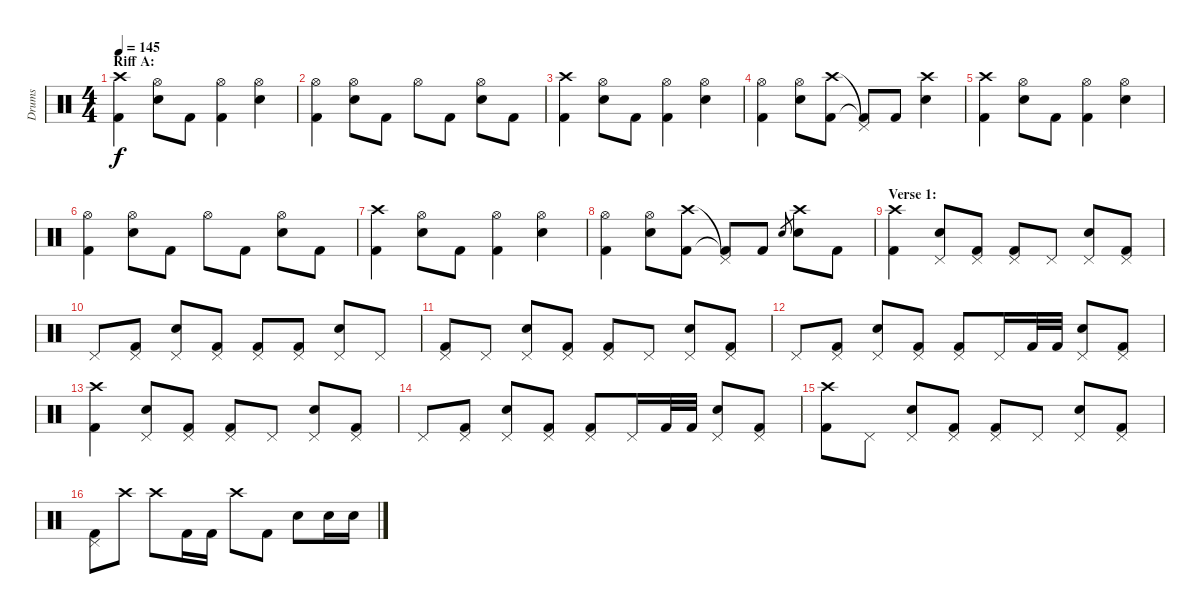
\track ("Drums" "Drums") {instrument percussion}
\staff {score}
\articulation defaults
\ts (4 4)
\section ("" "Riff A:")
\tempo 145
\clef neutral
\ks c
("Crash high (hit)" "Kick (hit) 2").4{dy f} ("Hi-Hat (open)" "Electric Snare (hit)").8 "Kick (hit) 2".8 ("Hi-Hat (open)" "Kick (hit) 2").4 ("Hi-Hat (open)" "Electric Snare (hit)").4 |
("Hi-Hat (open)" "Kick (hit) 2").4 ("Hi-Hat (open)" "Electric Snare (hit)").8 "Kick (hit) 2".8 "Hi-Hat (open)".8 "Kick (hit) 2".8 ("Hi-Hat (open)" "Electric Snare (hit)").8 "Kick (hit) 2".8 |
("Crash high (hit)" "Kick (hit) 2").4 ("Hi-Hat (open)" "Electric Snare (hit)").8 "Kick (hit) 2".8 ("Hi-Hat (open)" "Kick (hit) 2").4 ("Hi-Hat (open)" "Electric Snare (hit)").4 |
("Hi-Hat (open)" "Kick (hit) 2").4 ("Hi-Hat (open)" "Electric Snare (hit)").8 ("Crash high (hit)" "Kick (hit) 2").8 ("Pedal Hi-Hat (hit)"{t} "Kick (hit) 2"{t}).8 "Kick (hit) 2".8 ("Crash high (hit)" "Electric Snare (hit)").4 |
("Crash high (hit)" "Kick (hit) 2").4 ("Hi-Hat (open)" "Electric Snare (hit)").8 "Kick (hit) 2".8 ("Hi-Hat (open)" "Kick (hit) 2").4 ("Hi-Hat (open)" "Electric Snare (hit)").4 |
("Hi-Hat (open)" "Kick (hit) 2").4 ("Hi-Hat (open)" "Electric Snare (hit)").8 "Kick (hit) 2".8 "Hi-Hat (open)".8 "Kick (hit) 2".8 ("Hi-Hat (open)" "Electric Snare (hit)").8 "Kick (hit) 2".8 |
("Crash high (hit)" "Kick (hit) 2").4 ("Hi-Hat (open)" "Electric Snare (hit)").8 "Kick (hit) 2".8 ("Hi-Hat (open)" "Kick (hit) 2").4 ("Hi-Hat (open)" "Electric Snare (hit)").4 |
("Hi-Hat (open)" "Kick (hit) 2").4 ("Hi-Hat (open)" "Electric Snare (hit)").8 ("Crash high (hit)" "Kick (hit) 2").8 ("Pedal Hi-Hat (hit)"{t} "Kick (hit) 2"{t}).8 "Kick (hit) 2".8 "Electric Snare (hit)".8{gr} ("Crash high (hit)" "Electric Snare (hit)").8 "Kick (hit) 2".8 |
\section ("" "Verse 1:")
("Crash high (hit)" "Kick (hit) 2").4 ("Pedal Hi-Hat (hit)" "Electric Snare (hit)").8 ("Pedal Hi-Hat (hit)" "Kick (hit) 2").8 ("Pedal Hi-Hat (hit)" "Kick (hit) 2").8 "Pedal Hi-Hat (hit)".8 ("Pedal Hi-Hat (hit)" "Electric Snare (hit)").8 ("Pedal Hi-Hat (hit)" "Kick (hit) 2").8 |
"Pedal Hi-Hat (hit)".8 ("Pedal Hi-Hat (hit)" "Kick (hit) 2").8 ("Pedal Hi-Hat (hit)" "Electric Snare (hit)").8 ("Pedal Hi-Hat (hit)" "Kick (hit) 2").8 ("Pedal Hi-Hat (hit)" "Kick (hit) 2").8 ("Pedal Hi-Hat (hit)" "Kick (hit) 2").8 ("Pedal Hi-Hat (hit)" "Electric Snare (hit)").8 "Pedal Hi-Hat (hit)".8 |
("Pedal Hi-Hat (hit)" "Kick (hit) 2").8 "Pedal Hi-Hat (hit)".8 ("Pedal Hi-Hat (hit)" "Electric Snare (hit)").8 ("Pedal Hi-Hat (hit)" "Kick (hit) 2").8 ("Pedal Hi-Hat (hit)" "Kick (hit) 2").8 "Pedal Hi-Hat (hit)".8 ("Pedal Hi-Hat (hit)" "Electric Snare (hit)").8 ("Pedal Hi-Hat (hit)" "Kick (hit) 2").8 |
"Pedal Hi-Hat (hit)".8 ("Pedal Hi-Hat (hit)" "Kick (hit) 2").8 ("Pedal Hi-Hat (hit)" "Electric Snare (hit)").8 ("Pedal Hi-Hat (hit)" "Kick (hit) 2").8 ("Pedal Hi-Hat (hit)" "Kick (hit) 2").8 "Pedal Hi-Hat (hit)".16 "Kick (hit) 2".32 "Kick (hit) 2".32 ("Pedal Hi-Hat (hit)" "Electric Snare (hit)").8 ("Pedal Hi-Hat (hit)" "Kick (hit) 2").8 |
("Crash high (hit)" "Kick (hit) 2").4 ("Pedal Hi-Hat (hit)" "Electric Snare (hit)").8 ("Pedal Hi-Hat (hit)" "Kick (hit) 2").8 ("Pedal Hi-Hat (hit)" "Kick (hit) 2").8 "Pedal Hi-Hat (hit)".8 ("Pedal Hi-Hat (hit)" "Electric Snare (hit)").8 ("Pedal Hi-Hat (hit)" "Kick (hit) 2").8 |
"Pedal Hi-Hat (hit)".8 ("Pedal Hi-Hat (hit)" "Kick (hit) 2").8 ("Pedal Hi-Hat (hit)" "Electric Snare (hit)").8 ("Pedal Hi-Hat (hit)" "Kick (hit) 2").8 ("Pedal Hi-Hat (hit)" "Kick (hit) 2").8 "Pedal Hi-Hat (hit)".16 "Kick (hit) 2".32 "Kick (hit) 2".32 ("Pedal Hi-Hat (hit)" "Electric Snare (hit)").8 ("Pedal Hi-Hat (hit)" "Kick (hit) 2").8 |
("Crash high (hit)" "Kick (hit) 2").8 "Pedal Hi-Hat (hit)".8 ("Pedal Hi-Hat (hit)" "Electric Snare (hit)").8 ("Pedal Hi-Hat (hit)" "Kick (hit) 2").8 ("Pedal Hi-Hat (hit)" "Kick (hit) 2").8 "Pedal Hi-Hat (hit)".8 ("Pedal Hi-Hat (hit)" "Electric Snare (hit)").8 ("Pedal Hi-Hat (hit)" "Kick (hit) 2").8 |
("Pedal Hi-Hat (hit)" "Kick (hit) 2").8 "Crash high (hit)".8 "Crash high (hit)".8 "Kick (hit) 2".16 "Kick (hit) 2".16 "Crash high (hit)".8 "Kick (hit) 2".8 "Electric Snare (hit)".8 "Electric Snare (hit)".16 "Electric Snare (hit)".16
